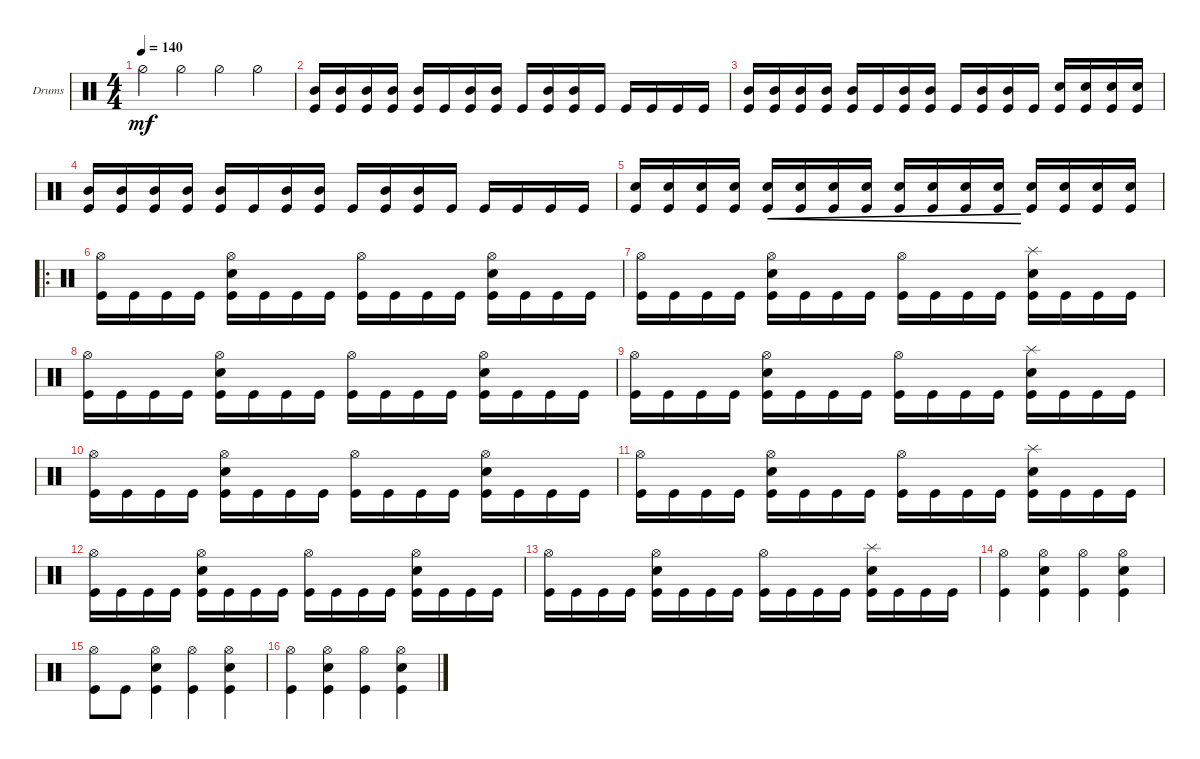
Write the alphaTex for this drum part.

\defaultSystemsLayout 4
\bracketExtendMode groupsimilarinstruments
\firstSystemTrackNameOrientation horizontal
\otherSystemsTrackNameOrientation horizontal
\track ("Drumkit" "Drums") {instrument percussion}
\staff {score}
\articulation defaults
\ts (4 4)
\tempo 140
\clef neutral
\scale
0.472222
\ks c "Hi-Hat (half)".4{dy mf} "Hi-Hat (half)".4 "Hi-Hat (half)".4 "Hi-Hat (half)".4
|
\scale
0.263889 ("Mid Tom (hit)" "Kick (hit)").16 ("Mid Tom (hit)" "Kick (hit)").16 ("Mid Tom (hit)" "Kick (hit)").16 ("Mid Tom (hit)" "Kick (hit)").16 ("Mid Tom (hit)" "Kick (hit)").16 "Kick (hit)".16 ("Mid Tom (hit)" "Kick (hit)").16 ("Mid Tom (hit)" "Kick (hit)").16 "Kick (hit)".16 ("Mid Tom (hit)" "Kick (hit)").16 ("Mid Tom (hit)" "Kick (hit)").16 "Kick (hit)".16 "Kick (hit)".16 "Kick (hit)".16 "Kick (hit)".16 "Kick (hit)".16 |
\scale
0.263889 ("Kick (hit)" "Mid Tom (hit)").16 ("Kick (hit)" "Mid Tom (hit)").16 ("Kick (hit)" "Mid Tom (hit)").16 ("Kick (hit)" "Mid Tom (hit)").16 ("Kick (hit)" "Mid Tom (hit)").16 "Kick (hit)".16 ("Kick (hit)" "Mid Tom (hit)").16 ("Kick (hit)" "Mid Tom (hit)").16 "Kick (hit)".16 ("Kick (hit)" "Mid Tom (hit)").16 ("Kick (hit)" "Mid Tom (hit)").16 "Kick (hit)".16 ("Kick (hit)" "Snare (hit) 2").16 ("Kick (hit)" "Snare (hit) 2").16 ("Kick (hit)" "Snare (hit) 2").16 ("Kick (hit)" "Snare (hit) 2").16 |
\scale
0.311475 ("Kick (hit)" "Mid Tom (hit)").16 ("Kick (hit)" "Mid Tom (hit)").16 ("Kick (hit)" "Mid Tom (hit)").16 ("Kick (hit)" "Mid Tom (hit)").16 ("Kick (hit)" "Mid Tom (hit)").16 "Kick (hit)".16 ("Kick (hit)" "Mid Tom (hit)").16 ("Kick (hit)" "Mid Tom (hit)").16 "Kick (hit)".16 ("Kick (hit)" "Mid Tom (hit)").16 ("Kick (hit)" "Mid Tom (hit)").16 "Kick (hit)".16 "Kick (hit)".16 "Kick (hit)".16 "Kick (hit)".16 "Kick (hit)".16 |
\scale
0.311475 ("Kick (hit)" "Snare (hit) 2").16 ("Kick (hit)" "Snare (hit) 2").16 ("Kick (hit)" "Snare (hit) 2").16 ("Kick (hit)" "Snare (hit) 2").16 ("Kick (hit)" "Snare (hit) 2").16{cre} ("Kick (hit)" "Snare (hit) 2").16{cre} ("Kick (hit)" "Snare (hit) 2").16{cre} ("Kick (hit)" "Snare (hit) 2").16{cre} ("Kick (hit)" "Snare (hit) 2").16{cre} ("Kick (hit)" "Snare (hit) 2").16{cre} ("Kick (hit)" "Snare (hit) 2").16{cre} ("Kick (hit)" "Snare (hit) 2").16{cre} ("Kick (hit)" "Snare (hit) 2").16 ("Kick (hit)" "Snare (hit) 2").16 ("Kick (hit)" "Snare (hit) 2").16 ("Kick (hit)" "Snare (hit) 2").16 |
\ro
\scale
0.377049 ("Kick (hit)" "Hi-Hat (open)").16 "Kick (hit)".16 "Kick (hit)".16 "Kick (hit)".16 ("Kick (hit)" "Snare (hit) 2" "Hi-Hat (open)").16 "Kick (hit)".16 "Kick (hit)".16 "Kick (hit)".16 ("Kick (hit)" "Hi-Hat (open)").16 "Kick (hit)".16 "Kick (hit)".16 "Kick (hit)".16 ("Kick (hit)" "Snare (hit) 2" "Hi-Hat (open)").16 "Kick (hit)".16 "Kick (hit)".16 "Kick (hit)".16 |
\scale
0.333333 ("Kick (hit)" "Hi-Hat (open)").16 "Kick (hit)".16 "Kick (hit)".16 "Kick (hit)".16 ("Kick (hit)" "Snare (hit) 2" "Hi-Hat (open)").16 "Kick (hit)".16 "Kick (hit)".16 "Kick (hit)".16 ("Kick (hit)" "Hi-Hat (open)").16 "Kick (hit)".16 "Kick (hit)".16 "Kick (hit)".16 ("Kick (hit)" "Snare (hit) 2" "Splash (hit)").16 "Kick (hit)".16 "Kick (hit)".16 "Kick (hit)".16 |
\scale
0.333333 ("Kick (hit)" "Hi-Hat (open)").16 "Kick (hit)".16 "Kick (hit)".16 "Kick (hit)".16 ("Kick (hit)" "Snare (hit) 2" "Hi-Hat (open)").16 "Kick (hit)".16 "Kick (hit)".16 "Kick (hit)".16 ("Kick (hit)" "Hi-Hat (open)").16 "Kick (hit)".16 "Kick (hit)".16 "Kick (hit)".16 ("Kick (hit)" "Snare (hit) 2" "Hi-Hat (open)").16 "Kick (hit)".16 "Kick (hit)".16 "Kick (hit)".16 |
\scale
0.333333 ("Kick (hit)" "Hi-Hat (open)").16 "Kick (hit)".16 "Kick (hit)".16 "Kick (hit)".16 ("Kick (hit)" "Snare (hit) 2" "Hi-Hat (open)").16 "Kick (hit)".16 "Kick (hit)".16 "Kick (hit)".16 ("Kick (hit)" "Hi-Hat (open)").16 "Kick (hit)".16 "Kick (hit)".16 "Kick (hit)".16 ("Kick (hit)" "Snare (hit) 2" "Splash (hit)").16 "Kick (hit)".16 "Kick (hit)".16 "Kick (hit)".16 |
\scale
0.333333 ("Kick (hit)" "Hi-Hat (open)").16 "Kick (hit)".16 "Kick (hit)".16 "Kick (hit)".16 ("Kick (hit)" "Snare (hit) 2" "Hi-Hat (open)").16 "Kick (hit)".16 "Kick (hit)".16 "Kick (hit)".16 ("Kick (hit)" "Hi-Hat (open)").16 "Kick (hit)".16 "Kick (hit)".16 "Kick (hit)".16 ("Kick (hit)" "Snare (hit) 2" "Hi-Hat (open)").16 "Kick (hit)".16 "Kick (hit)".16 "Kick (hit)".16 |
\scale
0.333333 ("Kick (hit)" "Hi-Hat (open)").16 "Kick (hit)".16 "Kick (hit)".16 "Kick (hit)".16 ("Kick (hit)" "Snare (hit) 2" "Hi-Hat (open)").16 "Kick (hit)".16 "Kick (hit)".16 "Kick (hit)".16 ("Kick (hit)" "Hi-Hat (open)").16 "Kick (hit)".16 "Kick (hit)".16 "Kick (hit)".16 ("Kick (hit)" "Snare (hit) 2" "Splash (hit)").16 "Kick (hit)".16 "Kick (hit)".16 "Kick (hit)".16 |
\scale
0.333333 ("Kick (hit)" "Hi-Hat (open)").16 "Kick (hit)".16 "Kick (hit)".16 "Kick (hit)".16 ("Kick (hit)" "Snare (hit) 2" "Hi-Hat (open)").16 "Kick (hit)".16 "Kick (hit)".16 "Kick (hit)".16 ("Kick (hit)" "Hi-Hat (open)").16 "Kick (hit)".16 "Kick (hit)".16 "Kick (hit)".16 ("Kick (hit)" "Snare (hit) 2" "Hi-Hat (open)").16 "Kick (hit)".16 "Kick (hit)".16 "Kick (hit)".16 |
\scale
0.333333 ("Kick (hit)" "Hi-Hat (open)").16 "Kick (hit)".16 "Kick (hit)".16 "Kick (hit)".16 ("Kick (hit)" "Snare (hit) 2" "Hi-Hat (open)").16 "Kick (hit)".16 "Kick (hit)".16 "Kick (hit)".16 ("Kick (hit)" "Hi-Hat (open)").16 "Kick (hit)".16 "Kick (hit)".16 "Kick (hit)".16 ("Kick (hit)" "Snare (hit) 2" "Splash (hit)").16 "Kick (hit)".16 "Kick (hit)".16 "Kick (hit)".16 |
\scale
0.333333 ("Kick (hit)" "Hi-Hat (open)").4 ("Kick (hit)" "Snare (hit) 2" "Hi-Hat (open)").4 ("Kick (hit)" "Hi-Hat (open)").4 ("Kick (hit)" "Snare (hit) 2" "Hi-Hat (open)").4 |
\scale
0.333333 ("Kick (hit)" "Hi-Hat (open)").8 "Kick (hit)".8 ("Kick (hit)" "Snare (hit) 2" "Hi-Hat (open)").4 ("Kick (hit)" "Hi-Hat (open)").4 ("Kick (hit)" "Snare (hit) 2" "Hi-Hat (open)").4 |
\scale
0.333333 ("Kick (hit)" "Hi-Hat (open)").4 ("Kick (hit)" "Snare (hit) 2" "Hi-Hat (open)").4 ("Kick (hit)" "Hi-Hat (open)").4 ("Kick (hit)" "Snare (hit) 2" "Hi-Hat (open)").4
